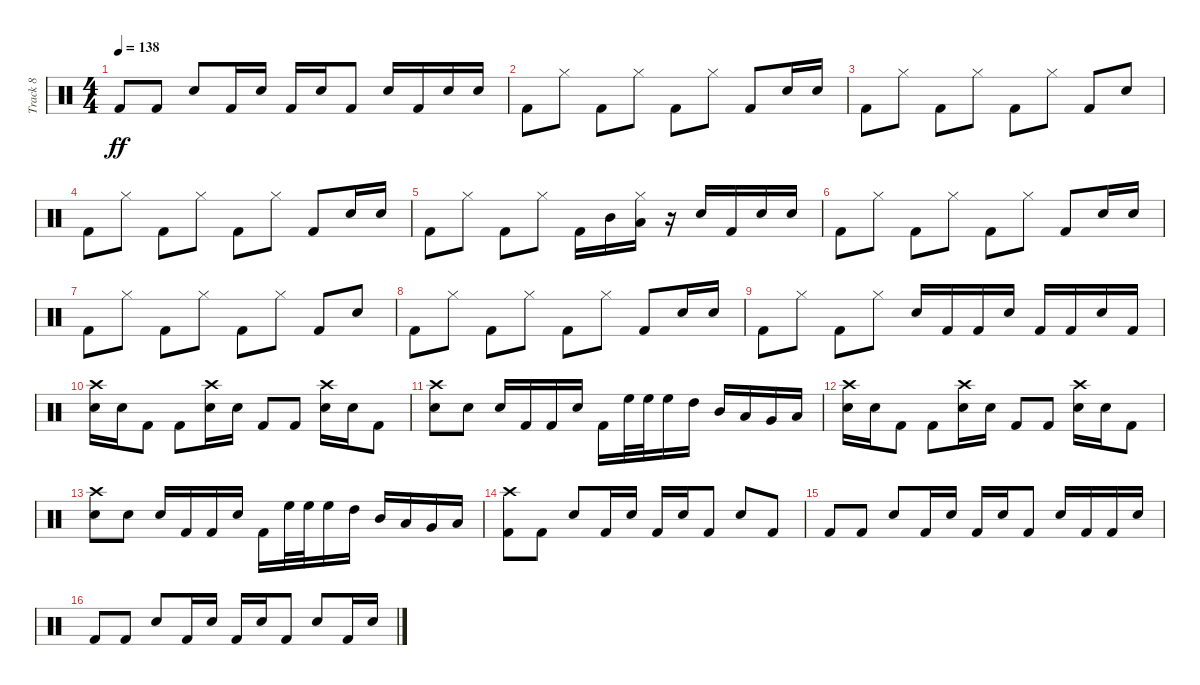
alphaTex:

\track ("Track 8" "Track 8") {instrument percussion}
\staff {score}
\articulation defaults
\ts (4 4)
\tempo 138
\clef neutral
\ks c "Kick (hit) 2".8{dy ff} "Kick (hit) 2".8 "Snare (hit) 2".8 "Kick (hit) 2".16 "Snare (hit) 2".16 "Kick (hit) 2".16 "Snare (hit) 2".16 "Kick (hit) 2".8 "Snare (hit) 2".16 "Kick (hit) 2".16 "Snare (hit) 2".16 "Snare (hit) 2".16
|
"Kick (hit) 2".8 "Hi-Hat (closed)".8 "Kick (hit) 2".8 "Hi-Hat (closed)".8 "Kick (hit) 2".8 "Hi-Hat (closed)".8 "Kick (hit) 2".8 "Snare (hit) 2".16 "Snare (hit) 2".16 |
"Kick (hit) 2".8 "Hi-Hat (closed)".8 "Kick (hit) 2".8 "Hi-Hat (closed)".8 "Kick (hit) 2".8 "Hi-Hat (closed)".8 "Kick (hit) 2".8 "Snare (hit) 2".8 |
"Kick (hit) 2".8 "Hi-Hat (closed)".8 "Kick (hit) 2".8 "Hi-Hat (closed)".8 "Kick (hit) 2".8 "Hi-Hat (closed)".8 "Kick (hit) 2".8 "Snare (hit) 2".16 "Snare (hit) 2".16 |
"Kick (hit) 2".8 "Hi-Hat (closed)".8 "Kick (hit) 2".8 "Hi-Hat (closed)".8 "Kick (hit) 2".16 "Mid Tom (hit)".16 ("Hi-Hat (closed)" "Low Tom (hit)").16 r.16 "Snare (hit) 2".16 "Kick (hit) 2".16 "Snare (hit) 2".16 "Snare (hit) 2".16 |
"Kick (hit) 2".8 "Hi-Hat (closed)".8 "Kick (hit) 2".8 "Hi-Hat (closed)".8 "Kick (hit) 2".8 "Hi-Hat (closed)".8 "Kick (hit) 2".8 "Snare (hit) 2".16 "Snare (hit) 2".16 |
"Kick (hit) 2".8 "Hi-Hat (closed)".8 "Kick (hit) 2".8 "Hi-Hat (closed)".8 "Kick (hit) 2".8 "Hi-Hat (closed)".8 "Kick (hit) 2".8 "Snare (hit) 2".8 |
"Kick (hit) 2".8 "Hi-Hat (closed)".8 "Kick (hit) 2".8 "Hi-Hat (closed)".8 "Kick (hit) 2".8 "Hi-Hat (closed)".8 "Kick (hit) 2".8 "Snare (hit) 2".16 "Snare (hit) 2".16 |
"Kick (hit) 2".8 "Hi-Hat (closed)".8 "Kick (hit) 2".8 "Hi-Hat (closed)".8 "Snare (hit) 2".16 "Kick (hit) 2".16 "Kick (hit) 2".16 "Snare (hit) 2".16 "Kick (hit) 2".16 "Kick (hit) 2".16 "Snare (hit) 2".16 "Kick (hit) 2".16 |
("Snare (hit) 2" "Crash high (hit)").16 "Snare (hit) 2".16 "Kick (hit) 2".8 "Kick (hit) 2".8 ("Snare (hit) 2" "Crash high (hit)").16 "Snare (hit) 2".16 "Kick (hit) 2".8 "Kick (hit) 2".8 ("Snare (hit) 2" "Crash high (hit)").16 "Snare (hit) 2".16 "Kick (hit) 2".8 |
("Snare (hit) 2" "Crash high (hit)").8 "Snare (hit) 2".8 "Snare (hit) 2".16 "Kick (hit) 2".16 "Kick (hit) 2".16 "Snare (hit) 2".16 "Kick (hit) 2".16 "High Floor Tom (hit)".32 "High Floor Tom (hit)".32 "High Floor Tom (hit)".16 "High Tom (hit)".16 "Mid Tom (hit)".16 "Low Tom (hit)".16 "Very Low Tom (hit)".16 "Low Floor Tom (hit)".16 |
("Snare (hit) 2" "Crash high (hit)").16 "Snare (hit) 2".16 "Kick (hit) 2".8 "Kick (hit) 2".8 ("Snare (hit) 2" "Crash high (hit)").16 "Snare (hit) 2".16 "Kick (hit) 2".8 "Kick (hit) 2".8 ("Snare (hit) 2" "Crash high (hit)").16 "Snare (hit) 2".16 "Kick (hit) 2".8 |
("Snare (hit) 2" "Crash high (hit)").8 "Snare (hit) 2".8 "Snare (hit) 2".16 "Kick (hit) 2".16 "Kick (hit) 2".16 "Snare (hit) 2".16 "Kick (hit) 2".16 "High Floor Tom (hit)".32 "High Floor Tom (hit)".32 "High Floor Tom (hit)".16 "High Tom (hit)".16 "Mid Tom (hit)".16 "Low Tom (hit)".16 "Very Low Tom (hit)".16 "Low Floor Tom (hit)".16 |
("Kick (hit) 2" "Crash high (hit)").8 "Kick (hit) 2".8 "Snare (hit) 2".8 "Kick (hit) 2".16 "Snare (hit) 2".16 "Kick (hit) 2".16 "Snare (hit) 2".16 "Kick (hit) 2".8 "Snare (hit) 2".8 "Kick (hit) 2".8 |
"Kick (hit) 2".8 "Kick (hit) 2".8 "Snare (hit) 2".8 "Kick (hit) 2".16 "Snare (hit) 2".16 "Kick (hit) 2".16 "Snare (hit) 2".16 "Kick (hit) 2".8 "Snare (hit) 2".16 "Kick (hit) 2".16 "Kick (hit) 2".16 "Snare (hit) 2".16 |
"Kick (hit) 2".8 "Kick (hit) 2".8 "Snare (hit) 2".8 "Kick (hit) 2".16 "Snare (hit) 2".16 "Kick (hit) 2".16 "Snare (hit) 2".16 "Kick (hit) 2".8 "Snare (hit) 2".8 "Kick (hit) 2".16 "Snare (hit) 2".16
